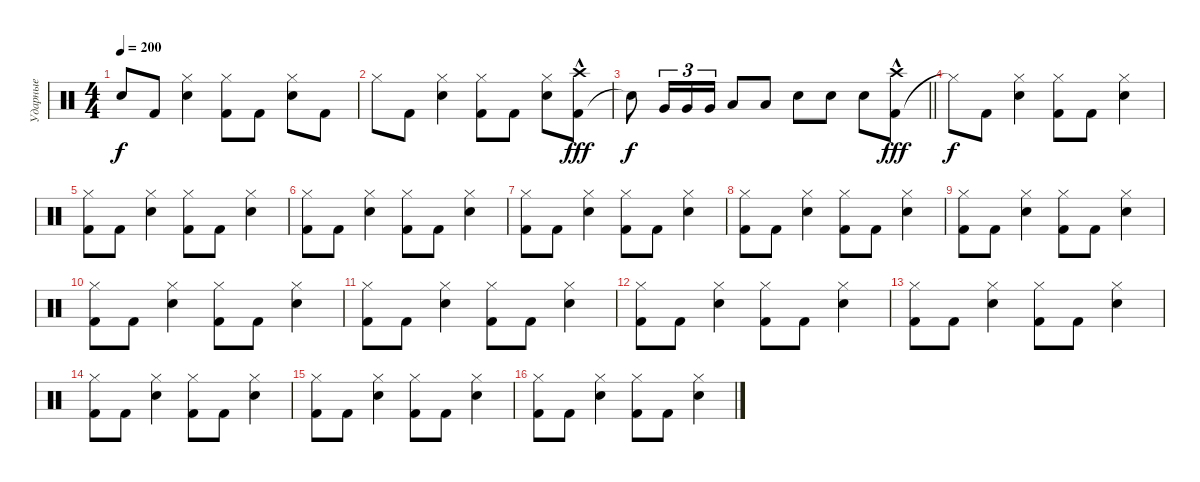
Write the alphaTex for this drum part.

\track ("Ударные" "Ударные") {instrument percussion}
\staff {score}
\articulation defaults
\ts (4 4)
\tempo 200
\clef neutral
\ks c "Snare (hit)"{t}.8{dy f} "Kick (hit) 2".8
("Snare (hit) 2" "Hi-Hat (closed)").4 ("Kick (hit) 2" "Hi-Hat (closed)").8 "Kick (hit) 2".8 ("Snare (hit) 2" "Hi-Hat (closed)").8 "Kick (hit) 2".8 |
"Hi-Hat (closed)".8 "Kick (hit) 2".8 ("Snare (hit) 2" "Hi-Hat (closed)").4 ("Kick (hit) 2" "Hi-Hat (closed)").8 "Kick (hit) 2".8 ("Snare (hit) 2" "Hi-Hat (closed)").8 ("Kick (hit) 2" "Crash high (hit)"{hac}).8{dy fff} |
\barLineRight lightlight "Snare (hit)"{t}.8{dy f} "Very Low Tom (hit)".16{tu (3 2)} "Very Low Tom (hit)".16{tu (3 2)} "Very Low Tom (hit)".16{tu (3 2)} "Low Floor Tom (hit)".8 "Low Floor Tom (hit)".8 "Snare (hit) 2".8 "Snare (hit) 2".8 "Snare (hit) 2".8
("Kick (hit) 2" "Crash high (hit)"{hac}).8{dy fff} |
"Hi-Hat (closed)"{t}.8{dy f} "Kick (hit) 2".8 ("Snare (hit) 2" "Hi-Hat (closed)").4 ("Kick (hit) 2" "Hi-Hat (closed)").8 "Kick (hit) 2".8 ("Snare (hit) 2" "Hi-Hat (closed)").4 |
("Kick (hit) 2" "Hi-Hat (closed)").8 "Kick (hit) 2".8 ("Snare (hit) 2" "Hi-Hat (closed)").4 ("Kick (hit) 2" "Hi-Hat (closed)").8 "Kick (hit) 2".8 ("Snare (hit) 2" "Hi-Hat (closed)").4 |
("Kick (hit) 2" "Hi-Hat (closed)").8 "Kick (hit) 2".8 ("Snare (hit) 2" "Hi-Hat (closed)").4 ("Kick (hit) 2" "Hi-Hat (closed)").8 "Kick (hit) 2".8 ("Snare (hit) 2" "Hi-Hat (closed)").4 |
("Kick (hit) 2" "Hi-Hat (closed)").8 "Kick (hit) 2".8 ("Snare (hit) 2" "Hi-Hat (closed)").4 ("Kick (hit) 2" "Hi-Hat (closed)").8 "Kick (hit) 2".8 ("Snare (hit) 2" "Hi-Hat (closed)").4 |
("Kick (hit) 2" "Hi-Hat (closed)").8 "Kick (hit) 2".8 ("Snare (hit) 2" "Hi-Hat (closed)").4 ("Kick (hit) 2" "Hi-Hat (closed)").8 "Kick (hit) 2".8 ("Snare (hit) 2" "Hi-Hat (closed)").4 |
("Kick (hit) 2" "Hi-Hat (closed)").8 "Kick (hit) 2".8 ("Snare (hit) 2" "Hi-Hat (closed)").4 ("Kick (hit) 2" "Hi-Hat (closed)").8 "Kick (hit) 2".8 ("Snare (hit) 2" "Hi-Hat (closed)").4 |
("Kick (hit) 2" "Hi-Hat (closed)").8 "Kick (hit) 2".8 ("Snare (hit) 2" "Hi-Hat (closed)").4 ("Kick (hit) 2" "Hi-Hat (closed)").8 "Kick (hit) 2".8 ("Snare (hit) 2" "Hi-Hat (closed)").4 |
("Kick (hit) 2" "Hi-Hat (closed)").8 "Kick (hit) 2".8 ("Snare (hit) 2" "Hi-Hat (closed)").4 ("Kick (hit) 2" "Hi-Hat (closed)").8 "Kick (hit) 2".8 ("Snare (hit) 2" "Hi-Hat (closed)").4 |
("Kick (hit) 2" "Hi-Hat (closed)").8 "Kick (hit) 2".8 ("Snare (hit) 2" "Hi-Hat (closed)").4 ("Kick (hit) 2" "Hi-Hat (closed)").8 "Kick (hit) 2".8 ("Snare (hit) 2" "Hi-Hat (closed)").4 |
("Kick (hit) 2" "Hi-Hat (closed)").8 "Kick (hit) 2".8 ("Snare (hit) 2" "Hi-Hat (closed)").4 ("Kick (hit) 2" "Hi-Hat (closed)").8 "Kick (hit) 2".8 ("Snare (hit) 2" "Hi-Hat (closed)").4 |
("Kick (hit) 2" "Hi-Hat (closed)").8 "Kick (hit) 2".8 ("Snare (hit) 2" "Hi-Hat (closed)").4 ("Kick (hit) 2" "Hi-Hat (closed)").8 "Kick (hit) 2".8 ("Snare (hit) 2" "Hi-Hat (closed)").4 |
("Kick (hit) 2" "Hi-Hat (closed)").8 "Kick (hit) 2".8 ("Snare (hit) 2" "Hi-Hat (closed)").4 ("Kick (hit) 2" "Hi-Hat (closed)").8 "Kick (hit) 2".8 ("Snare (hit) 2" "Hi-Hat (closed)").4 |
("Kick (hit) 2" "Hi-Hat (closed)").8 "Kick (hit) 2".8 ("Snare (hit) 2" "Hi-Hat (closed)").4 ("Kick (hit) 2" "Hi-Hat (closed)").8 "Kick (hit) 2".8 ("Snare (hit) 2" "Hi-Hat (closed)").4
